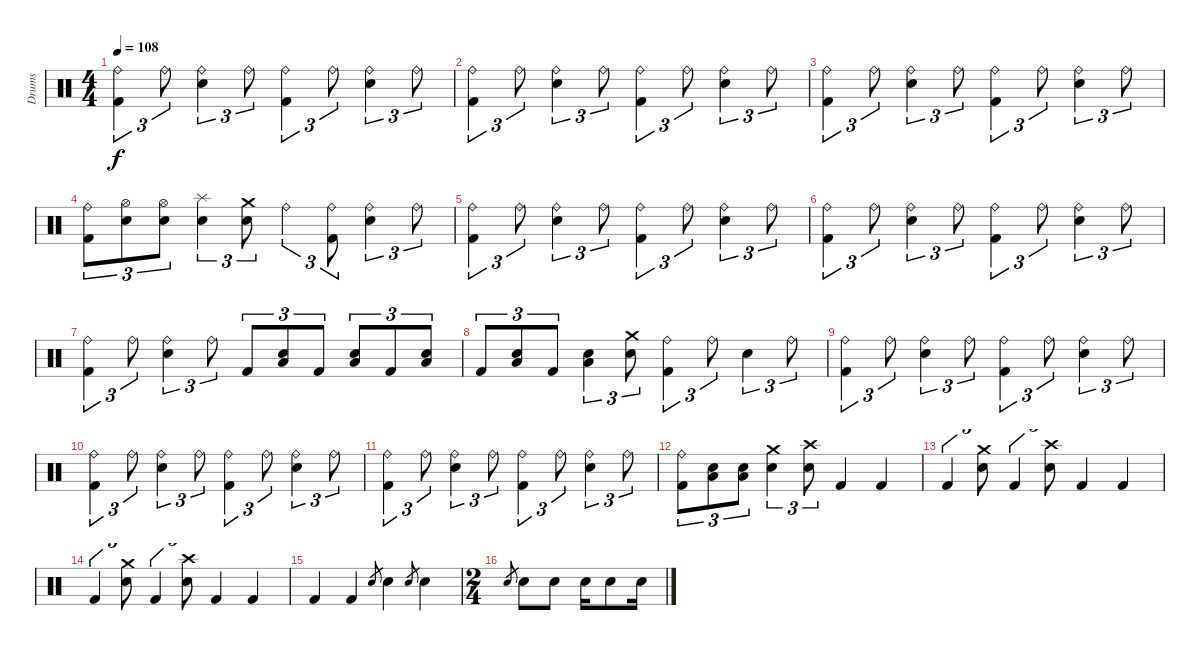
\track ("Drums" "Drums") {instrument percussion}
\staff {score}
\articulation defaults
\ts (4 4)
\tempo 108
\clef neutral
\ks c
("Ride (bell)" "Kick (hit) 2").4{tu (3 2) dy f} "Ride (bell)".8{tu (3 2)} ("Ride (bell)" "Electric Snare (hit)").4{tu (3 2)} "Ride (bell)".8{tu (3 2)} ("Ride (bell)" "Kick (hit) 2").4{tu (3 2)} "Ride (bell)".8{tu (3 2)} ("Ride (bell)" "Electric Snare (hit)").4{tu (3 2)} "Ride (bell)".8{tu (3 2)} |
("Ride (bell)" "Kick (hit) 2").4{tu (3 2)} "Ride (bell)".8{tu (3 2)} ("Ride (bell)" "Electric Snare (hit)").4{tu (3 2)} "Ride (bell)".8{tu (3 2)} ("Ride (bell)" "Kick (hit) 2").4{tu (3 2)} "Ride (bell)".8{tu (3 2)} ("Ride (bell)" "Electric Snare (hit)").4{tu (3 2)} "Ride (bell)".8{tu (3 2)} |
("Ride (bell)" "Kick (hit) 2").4{tu (3 2)} "Ride (bell)".8{tu (3 2)} ("Ride (bell)" "Electric Snare (hit)").4{tu (3 2)} "Ride (bell)".8{tu (3 2)} ("Ride (bell)" "Kick (hit) 2").4{tu (3 2)} "Ride (bell)".8{tu (3 2)} ("Ride (bell)" "Electric Snare (hit)").4{tu (3 2)} "Ride (bell)".8{tu (3 2)} |
("Ride (bell)" "Kick (hit) 2").8{tu (3 2)} ("Hi-Hat (open)" "Electric Snare (hit)").8{tu (3 2)} ("Hi-Hat (open)" "Electric Snare (hit)").8{tu (3 2)} ("Splash (hit)" "Electric Snare (hit)").4{tu (3 2)} ("Crash medium (hit)" "Electric Snare (hit)").8{tu (3 2)} "Ride (bell)".4{tu (3 2)} ("Ride (bell)" "Kick (hit) 2").8{tu (3 2)} ("Ride (bell)" "Electric Snare (hit)").4{tu (3 2)} "Ride (bell)".8{tu (3 2)} |
("Ride (bell)" "Kick (hit) 2").4{tu (3 2)} "Ride (bell)".8{tu (3 2)} ("Ride (bell)" "Electric Snare (hit)").4{tu (3 2)} "Ride (bell)".8{tu (3 2)} ("Ride (bell)" "Kick (hit) 2").4{tu (3 2)} "Ride (bell)".8{tu (3 2)} ("Ride (bell)" "Electric Snare (hit)").4{tu (3 2)} "Ride (bell)".8{tu (3 2)} |
("Ride (bell)" "Kick (hit) 2").4{tu (3 2)} "Ride (bell)".8{tu (3 2)} ("Ride (bell)" "Electric Snare (hit)").4{tu (3 2)} "Ride (bell)".8{tu (3 2)} ("Ride (bell)" "Kick (hit) 2").4{tu (3 2)} "Ride (bell)".8{tu (3 2)} ("Ride (bell)" "Electric Snare (hit)").4{tu (3 2)} "Ride (bell)".8{tu (3 2)} |
("Ride (bell)" "Kick (hit) 2").4{tu (3 2)} "Ride (bell)".8{tu (3 2)} ("Ride (bell)" "Electric Snare (hit)").4{tu (3 2)} "Ride (bell)".8{tu (3 2)} "Kick (hit) 2".8{tu (3 2)} ("Low Floor Tom (hit)" "Electric Snare (hit)").8{tu (3 2)} "Kick (hit) 2".8{tu (3 2)} ("Low Floor Tom (hit)" "Electric Snare (hit)").8{tu (3 2)} "Kick (hit) 2".8{tu (3 2)} ("Low Floor Tom (hit)" "Electric Snare (hit)").8{tu (3 2)} |
"Kick (hit) 2".8{tu (3 2)} ("Low Floor Tom (hit)" "Electric Snare (hit)").8{tu (3 2)} "Kick (hit) 2".8{tu (3 2)} ("Low Floor Tom (hit)" "Electric Snare (hit)").4{tu (3 2)} ("Crash medium (hit)" "Electric Snare (hit)").8{tu (3 2)} ("Ride (bell)" "Kick (hit) 2").4{tu (3 2)} "Ride (bell)".8{tu (3 2)} "Electric Snare (hit)".4{tu (3 2)} "Ride (bell)".8{tu (3 2)} |
("Ride (bell)" "Kick (hit) 2").4{tu (3 2)} "Ride (bell)".8{tu (3 2)} ("Ride (bell)" "Electric Snare (hit)").4{tu (3 2)} "Ride (bell)".8{tu (3 2)} ("Ride (bell)" "Kick (hit) 2").4{tu (3 2)} "Ride (bell)".8{tu (3 2)} ("Ride (bell)" "Electric Snare (hit)").4{tu (3 2)} "Ride (bell)".8{tu (3 2)} |
("Ride (bell)" "Kick (hit) 2").4{tu (3 2)} "Ride (bell)".8{tu (3 2)} ("Ride (bell)" "Electric Snare (hit)").4{tu (3 2)} "Ride (bell)".8{tu (3 2)} ("Ride (bell)" "Kick (hit) 2").4{tu (3 2)} "Ride (bell)".8{tu (3 2)} ("Ride (bell)" "Electric Snare (hit)").4{tu (3 2)} "Ride (bell)".8{tu (3 2)} |
("Ride (bell)" "Kick (hit) 2").4{tu (3 2)} "Ride (bell)".8{tu (3 2)} ("Ride (bell)" "Electric Snare (hit)").4{tu (3 2)} "Ride (bell)".8{tu (3 2)} ("Ride (bell)" "Kick (hit) 2").4{tu (3 2)} "Ride (bell)".8{tu (3 2)} ("Ride (bell)" "Electric Snare (hit)").4{tu (3 2)} "Ride (bell)".8{tu (3 2)} |
("Ride (bell)" "Kick (hit) 2").8{tu (3 2)} ("Low Floor Tom (hit)" "Electric Snare (hit)").8{tu (3 2)} ("Low Floor Tom (hit)" "Electric Snare (hit)").8{tu (3 2)} ("Crash medium (hit)" "Electric Snare (hit)").4{tu (3 2)} ("Crash high (hit)" "Electric Snare (hit)").8{tu (3 2)} "Kick (hit) 2".4 "Kick (hit) 2".4 |
"Kick (hit) 2".4{tu (3 2)} ("Crash medium (hit)" "Electric Snare (hit)").8{tu (3 2)} "Kick (hit) 2".4{tu (3 2)} ("Crash high (hit)" "Electric Snare (hit)").8{tu (3 2)} "Kick (hit) 2".4 "Kick (hit) 2".4 |
"Kick (hit) 2".4{tu (3 2)} ("Crash medium (hit)" "Electric Snare (hit)").8{tu (3 2)} "Kick (hit) 2".4{tu (3 2)} ("Crash high (hit)" "Electric Snare (hit)").8{tu (3 2)} "Kick (hit) 2".4 "Kick (hit) 2".4 |
"Kick (hit) 2".4 "Kick (hit) 2".4 "Electric Snare (hit)".8{gr} "Electric Snare (hit)".4 "Electric Snare (hit)".8{gr} "Electric Snare (hit)".4 |
\ts (2 4)
"Electric Snare (hit)".8{gr} "Electric Snare (hit)".8 "Electric Snare (hit)".8 "Electric Snare (hit)".16 "Electric Snare (hit)".8 "Electric Snare (hit)".16
